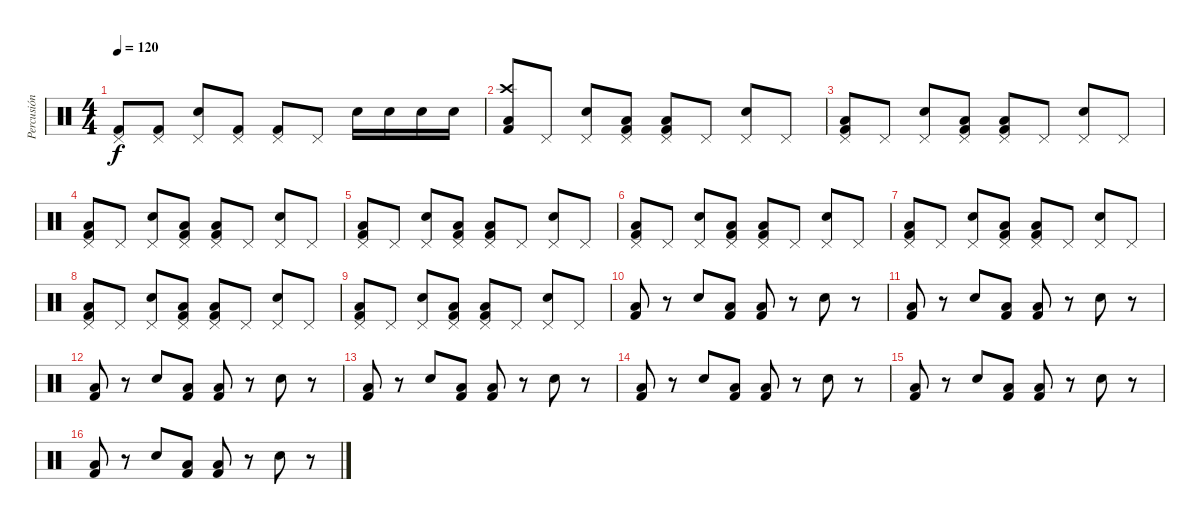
\track ("Percusión" "Percusión") {instrument percussion}
\staff {score}
\articulation defaults
\ts (4 4)
\tempo 120
\clef neutral
\ks c
("Pedal Hi-Hat (hit)" "Kick (hit) 2").8{dy f} ("Pedal Hi-Hat (hit)" "Kick (hit) 2").8 ("Pedal Hi-Hat (hit)" "Electric Snare (hit)").8 ("Pedal Hi-Hat (hit)" "Kick (hit) 2").8 ("Pedal Hi-Hat (hit)" "Kick (hit) 2").8 "Pedal Hi-Hat (hit)".8 "Snare (hit) 2".16{volume 16} "Snare (hit) 2".16 "Snare (hit) 2".16 "Snare (hit) 2".16 |
("Crash high (hit)" "Kick (hit) 2" "Low Tom (hit)").8 "Pedal Hi-Hat (hit)".8 ("Pedal Hi-Hat (hit)" "Snare (hit) 2").8 ("Pedal Hi-Hat (hit)" "Kick (hit) 2" "Low Tom (hit)").8 ("Pedal Hi-Hat (hit)" "Kick (hit) 2" "Low Tom (hit)").8 "Pedal Hi-Hat (hit)".8 ("Pedal Hi-Hat (hit)" "Snare (hit) 2").8 "Pedal Hi-Hat (hit)".8 |
("Pedal Hi-Hat (hit)" "Kick (hit) 2" "Low Tom (hit)").8 "Pedal Hi-Hat (hit)".8 ("Pedal Hi-Hat (hit)" "Snare (hit) 2").8 ("Pedal Hi-Hat (hit)" "Kick (hit) 2" "Low Tom (hit)").8 ("Pedal Hi-Hat (hit)" "Kick (hit) 2" "Low Tom (hit)").8 "Pedal Hi-Hat (hit)".8 ("Pedal Hi-Hat (hit)" "Snare (hit) 2").8 "Pedal Hi-Hat (hit)".8 |
("Pedal Hi-Hat (hit)" "Kick (hit) 2" "Low Tom (hit)").8 "Pedal Hi-Hat (hit)".8 ("Pedal Hi-Hat (hit)" "Snare (hit) 2").8 ("Pedal Hi-Hat (hit)" "Kick (hit) 2" "Low Tom (hit)").8 ("Pedal Hi-Hat (hit)" "Kick (hit) 2" "Low Tom (hit)").8 "Pedal Hi-Hat (hit)".8 ("Pedal Hi-Hat (hit)" "Snare (hit) 2").8 "Pedal Hi-Hat (hit)".8 |
("Pedal Hi-Hat (hit)" "Kick (hit) 2" "Low Tom (hit)").8 "Pedal Hi-Hat (hit)".8 ("Pedal Hi-Hat (hit)" "Snare (hit) 2").8 ("Pedal Hi-Hat (hit)" "Kick (hit) 2" "Low Tom (hit)").8 ("Pedal Hi-Hat (hit)" "Kick (hit) 2" "Low Tom (hit)").8 "Pedal Hi-Hat (hit)".8 ("Pedal Hi-Hat (hit)" "Snare (hit) 2").8 "Pedal Hi-Hat (hit)".8 |
("Pedal Hi-Hat (hit)" "Kick (hit) 2" "Low Tom (hit)").8 "Pedal Hi-Hat (hit)".8 ("Pedal Hi-Hat (hit)" "Snare (hit) 2").8 ("Pedal Hi-Hat (hit)" "Kick (hit) 2" "Low Tom (hit)").8 ("Pedal Hi-Hat (hit)" "Kick (hit) 2" "Low Tom (hit)").8 "Pedal Hi-Hat (hit)".8 ("Pedal Hi-Hat (hit)" "Snare (hit) 2").8 "Pedal Hi-Hat (hit)".8 |
("Pedal Hi-Hat (hit)" "Kick (hit) 2" "Low Tom (hit)").8 "Pedal Hi-Hat (hit)".8 ("Pedal Hi-Hat (hit)" "Snare (hit) 2").8 ("Pedal Hi-Hat (hit)" "Kick (hit) 2" "Low Tom (hit)").8 ("Pedal Hi-Hat (hit)" "Kick (hit) 2" "Low Tom (hit)").8 "Pedal Hi-Hat (hit)".8 ("Pedal Hi-Hat (hit)" "Snare (hit) 2").8 "Pedal Hi-Hat (hit)".8 |
("Pedal Hi-Hat (hit)" "Kick (hit) 2" "Low Tom (hit)").8 "Pedal Hi-Hat (hit)".8 ("Pedal Hi-Hat (hit)" "Snare (hit) 2").8 ("Pedal Hi-Hat (hit)" "Kick (hit) 2" "Low Tom (hit)").8 ("Pedal Hi-Hat (hit)" "Kick (hit) 2" "Low Tom (hit)").8 "Pedal Hi-Hat (hit)".8 ("Pedal Hi-Hat (hit)" "Snare (hit) 2").8 "Pedal Hi-Hat (hit)".8 |
("Pedal Hi-Hat (hit)" "Kick (hit) 2" "Low Tom (hit)").8 "Pedal Hi-Hat (hit)".8 ("Pedal Hi-Hat (hit)" "Snare (hit) 2").8 ("Pedal Hi-Hat (hit)" "Kick (hit) 2" "Low Tom (hit)").8 ("Pedal Hi-Hat (hit)" "Kick (hit) 2" "Low Tom (hit)").8 "Pedal Hi-Hat (hit)".8 ("Pedal Hi-Hat (hit)" "Snare (hit) 2").8 "Pedal Hi-Hat (hit)".8 |
("Kick (hit) 2" "Low Tom (hit)").8{volume 16} r.8 "Snare (hit) 2".8 ("Kick (hit) 2" "Low Tom (hit)").8 ("Kick (hit) 2" "Low Tom (hit)").8 r.8 "Snare (hit) 2".8 r.8 |
("Kick (hit) 2" "Low Tom (hit)").8 r.8 "Snare (hit) 2".8 ("Kick (hit) 2" "Low Tom (hit)").8 ("Kick (hit) 2" "Low Tom (hit)").8 r.8 "Snare (hit) 2".8 r.8 |
("Kick (hit) 2" "Low Tom (hit)").8 r.8 "Snare (hit) 2".8 ("Kick (hit) 2" "Low Tom (hit)").8 ("Kick (hit) 2" "Low Tom (hit)").8 r.8 "Snare (hit) 2".8 r.8 |
("Kick (hit) 2" "Low Tom (hit)").8 r.8 "Snare (hit) 2".8 ("Kick (hit) 2" "Low Tom (hit)").8 ("Kick (hit) 2" "Low Tom (hit)").8 r.8 "Snare (hit) 2".8 r.8 |
("Kick (hit) 2" "Low Tom (hit)").8 r.8 "Snare (hit) 2".8 ("Kick (hit) 2" "Low Tom (hit)").8 ("Kick (hit) 2" "Low Tom (hit)").8 r.8 "Snare (hit) 2".8 r.8 |
("Kick (hit) 2" "Low Tom (hit)").8 r.8 "Snare (hit) 2".8 ("Kick (hit) 2" "Low Tom (hit)").8 ("Kick (hit) 2" "Low Tom (hit)").8 r.8 "Snare (hit) 2".8 r.8 |
("Kick (hit) 2" "Low Tom (hit)").8 r.8 "Snare (hit) 2".8 ("Kick (hit) 2" "Low Tom (hit)").8 ("Kick (hit) 2" "Low Tom (hit)").8 r.8 "Snare (hit) 2".8 r.8
